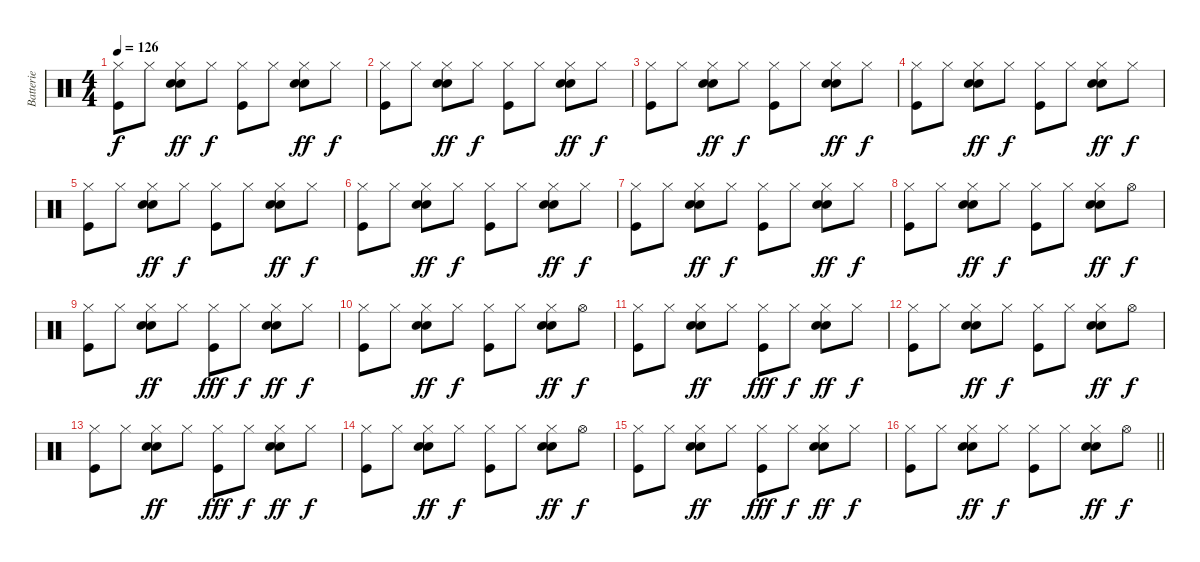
\track ("Batterie" "Batterie") {instrument percussion}
\staff {score}
\articulation defaults
\ts (4 4)
\tempo 126
\clef neutral
\ks c
("Hi-Hat (closed)" "Kick (hit)").8{dy f} "Hi-Hat (closed)".8 ("Hi-Hat (closed)" "Hand Clap (hit)" "Snare (hit) 2").8{dy ff} "Hi-Hat (closed)".8{dy f} ("Hi-Hat (closed)" "Kick (hit)").8 "Hi-Hat (closed)".8 ("Hi-Hat (closed)" "Hand Clap (hit)" "Snare (hit) 2").8{dy ff} "Hi-Hat (closed)".8{dy f} |
("Hi-Hat (closed)" "Kick (hit)").8 "Hi-Hat (closed)".8 ("Hi-Hat (closed)" "Hand Clap (hit)" "Snare (hit) 2").8{dy ff} "Hi-Hat (closed)".8{dy f} ("Hi-Hat (closed)" "Kick (hit)").8 "Hi-Hat (closed)".8 ("Hi-Hat (closed)" "Hand Clap (hit)" "Snare (hit) 2").8{dy ff} "Hi-Hat (closed)".8{dy f} |
("Hi-Hat (closed)" "Kick (hit)").8 "Hi-Hat (closed)".8 ("Hi-Hat (closed)" "Hand Clap (hit)" "Snare (hit) 2").8{dy ff} "Hi-Hat (closed)".8{dy f} ("Hi-Hat (closed)" "Kick (hit)").8 "Hi-Hat (closed)".8 ("Hi-Hat (closed)" "Hand Clap (hit)" "Snare (hit) 2").8{dy ff} "Hi-Hat (closed)".8{dy f} |
("Hi-Hat (closed)" "Kick (hit)").8 "Hi-Hat (closed)".8 ("Hi-Hat (closed)" "Hand Clap (hit)" "Snare (hit) 2").8{dy ff} "Hi-Hat (closed)".8{dy f} ("Hi-Hat (closed)" "Kick (hit)").8 "Hi-Hat (closed)".8 ("Hi-Hat (closed)" "Hand Clap (hit)" "Snare (hit) 2").8{dy ff} "Hi-Hat (closed)".8{dy f} |
("Hi-Hat (closed)" "Kick (hit)").8 "Hi-Hat (closed)".8 ("Hi-Hat (closed)" "Hand Clap (hit)" "Snare (hit) 2").8{dy ff} "Hi-Hat (closed)".8{dy f} ("Hi-Hat (closed)" "Kick (hit)").8 "Hi-Hat (closed)".8 ("Hi-Hat (closed)" "Hand Clap (hit)" "Snare (hit) 2").8{dy ff} "Hi-Hat (closed)".8{dy f} |
("Hi-Hat (closed)" "Kick (hit)").8 "Hi-Hat (closed)".8 ("Hi-Hat (closed)" "Hand Clap (hit)" "Snare (hit) 2").8{dy ff} "Hi-Hat (closed)".8{dy f} ("Hi-Hat (closed)" "Kick (hit)").8 "Hi-Hat (closed)".8 ("Hi-Hat (closed)" "Hand Clap (hit)" "Snare (hit) 2").8{dy ff} "Hi-Hat (closed)".8{dy f} |
("Hi-Hat (closed)" "Kick (hit)").8 "Hi-Hat (closed)".8 ("Hi-Hat (closed)" "Hand Clap (hit)" "Snare (hit) 2").8{dy ff} "Hi-Hat (closed)".8{dy f} ("Hi-Hat (closed)" "Kick (hit)").8 "Hi-Hat (closed)".8 ("Hi-Hat (closed)" "Hand Clap (hit)" "Snare (hit) 2").8{dy ff} "Hi-Hat (closed)".8{dy f} |
("Hi-Hat (closed)" "Kick (hit)").8 "Hi-Hat (closed)".8 ("Hi-Hat (closed)" "Hand Clap (hit)" "Snare (hit) 2").8{dy ff} "Hi-Hat (closed)".8{dy f} ("Hi-Hat (closed)" "Kick (hit)").8 "Hi-Hat (closed)".8 ("Hi-Hat (closed)" "Hand Clap (hit)" "Snare (hit) 2").8{dy ff} "Hi-Hat (open)".8{dy f} |
("Hi-Hat (closed)" "Kick (hit)").8 "Hi-Hat (closed)".8 ("Hi-Hat (closed)" "Hand Clap (hit)" "Snare (hit) 2").8{dy ff} "Hi-Hat (closed)".8 ("Hi-Hat (closed)" "Kick (hit)").8{dy fff} "Hi-Hat (closed)".8{dy f} ("Hi-Hat (closed)" "Hand Clap (hit)" "Snare (hit) 2").8{dy ff} "Hi-Hat (closed)".8{dy f} |
("Hi-Hat (closed)" "Kick (hit)").8 "Hi-Hat (closed)".8 ("Hi-Hat (closed)" "Hand Clap (hit)" "Snare (hit) 2").8{dy ff} "Hi-Hat (closed)".8{dy f} ("Hi-Hat (closed)" "Kick (hit)").8 "Hi-Hat (closed)".8 ("Hi-Hat (closed)" "Hand Clap (hit)" "Snare (hit) 2").8{dy ff} "Hi-Hat (open)".8{dy f} |
("Hi-Hat (closed)" "Kick (hit)").8 "Hi-Hat (closed)".8 ("Hi-Hat (closed)" "Hand Clap (hit)" "Snare (hit) 2").8{dy ff} "Hi-Hat (closed)".8 ("Hi-Hat (closed)" "Kick (hit)").8{dy fff} "Hi-Hat (closed)".8{dy f} ("Hi-Hat (closed)" "Hand Clap (hit)" "Snare (hit) 2").8{dy ff} "Hi-Hat (closed)".8{dy f} |
("Hi-Hat (closed)" "Kick (hit)").8 "Hi-Hat (closed)".8 ("Hi-Hat (closed)" "Hand Clap (hit)" "Snare (hit) 2").8{dy ff} "Hi-Hat (closed)".8{dy f} ("Hi-Hat (closed)" "Kick (hit)").8 "Hi-Hat (closed)".8 ("Hi-Hat (closed)" "Hand Clap (hit)" "Snare (hit) 2").8{dy ff} "Hi-Hat (open)".8{dy f} |
("Hi-Hat (closed)" "Kick (hit)").8 "Hi-Hat (closed)".8 ("Hi-Hat (closed)" "Hand Clap (hit)" "Snare (hit) 2").8{dy ff} "Hi-Hat (closed)".8 ("Hi-Hat (closed)" "Kick (hit)").8{dy fff} "Hi-Hat (closed)".8{dy f} ("Hi-Hat (closed)" "Hand Clap (hit)" "Snare (hit) 2").8{dy ff} "Hi-Hat (closed)".8{dy f} |
("Hi-Hat (closed)" "Kick (hit)").8 "Hi-Hat (closed)".8 ("Hi-Hat (closed)" "Hand Clap (hit)" "Snare (hit) 2").8{dy ff} "Hi-Hat (closed)".8{dy f} ("Hi-Hat (closed)" "Kick (hit)").8 "Hi-Hat (closed)".8 ("Hi-Hat (closed)" "Hand Clap (hit)" "Snare (hit) 2").8{dy ff} "Hi-Hat (open)".8{dy f} |
("Hi-Hat (closed)" "Kick (hit)").8 "Hi-Hat (closed)".8 ("Hi-Hat (closed)" "Hand Clap (hit)" "Snare (hit) 2").8{dy ff} "Hi-Hat (closed)".8 ("Hi-Hat (closed)" "Kick (hit)").8{dy fff} "Hi-Hat (closed)".8{dy f} ("Hi-Hat (closed)" "Hand Clap (hit)" "Snare (hit) 2").8{dy ff} "Hi-Hat (closed)".8{dy f} |
\barLineRight lightlight
("Hi-Hat (closed)" "Kick (hit)").8 "Hi-Hat (closed)".8 ("Hi-Hat (closed)" "Hand Clap (hit)" "Snare (hit) 2").8{dy ff} "Hi-Hat (closed)".8{dy f} ("Hi-Hat (closed)" "Kick (hit)").8 "Hi-Hat (closed)".8 ("Hi-Hat (closed)" "Hand Clap (hit)" "Snare (hit) 2").8{dy ff} "Hi-Hat (open)".8{dy f}
